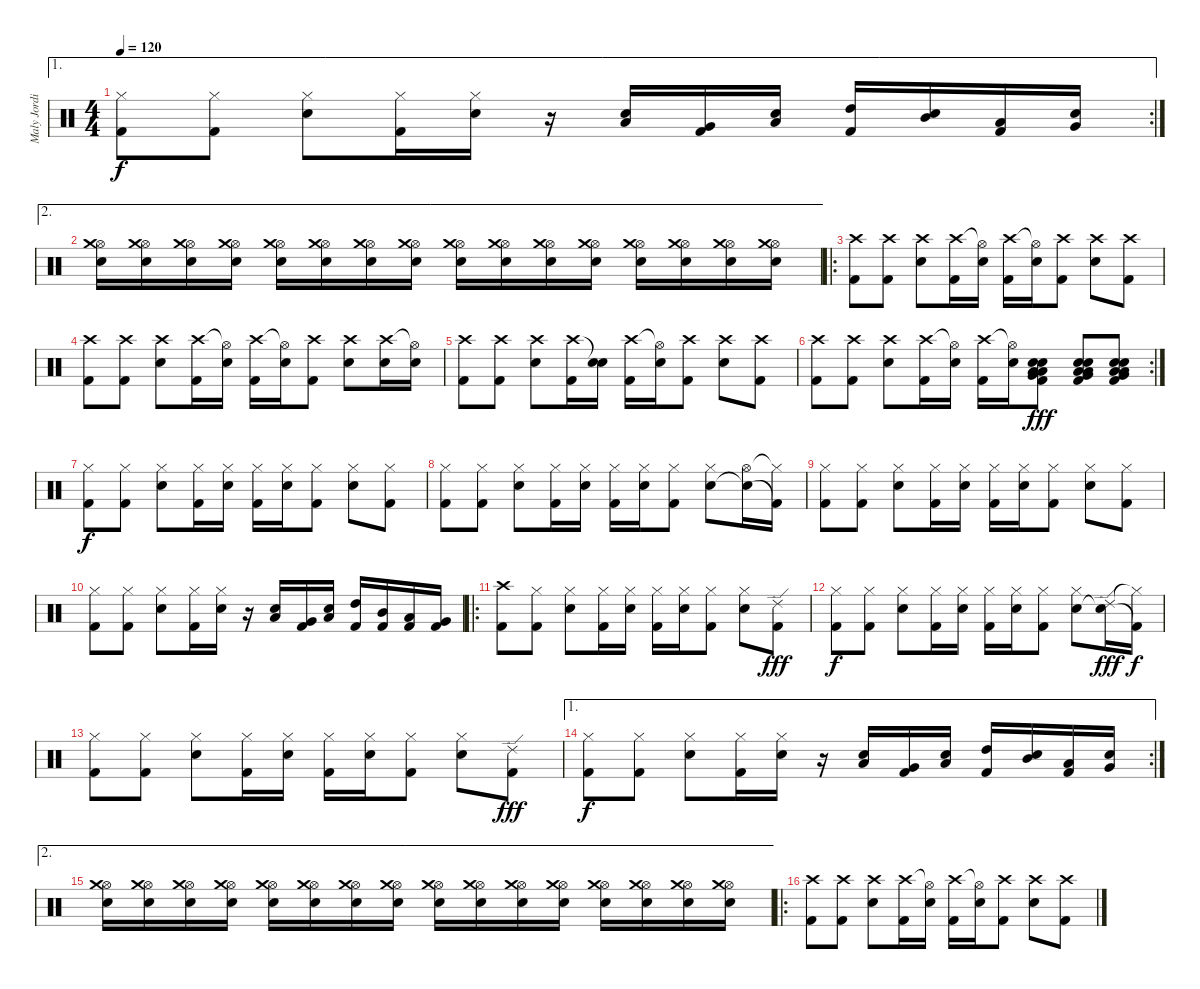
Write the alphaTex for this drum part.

\track ("Maly Jordison   - drums" "Maly Jordi") {instrument percussion}
\staff {score}
\articulation defaults
\ae 1
\rc 2
\ts (4 4)
\tempo 120
\clef neutral
\ks c
("Hi-Hat (closed)" "Kick (hit) 2").8{dy f} ("Hi-Hat (closed)" "Kick (hit) 2").8 ("Hi-Hat (closed)" "Electric Snare (hit)").8 ("Hi-Hat (closed)" "Kick (hit) 2").16 ("Hi-Hat (closed)" "Electric Snare (hit)").16 r.16 ("Low Floor Tom (hit)" "Electric Snare (hit)").16 ("Very Low Tom (hit)" "Kick (hit) 2").16 ("Low Tom (hit)" "Electric Snare (hit)").16 ("High Tom (hit)" "Kick (hit) 2").16 ("Mid Tom (hit)" "Electric Snare (hit)").16 ("Low Tom (hit)" "Kick (hit) 2").16 ("Very Low Tom (hit)" "Electric Snare (hit)").16 |
\ae 2
("Hi-Hat (open)" "Crash medium (hit)" "Electric Snare (hit)").16 ("Hi-Hat (open)" "Crash medium (hit)" "Electric Snare (hit)").16 ("Hi-Hat (open)" "Crash medium (hit)" "Electric Snare (hit)").16 ("Hi-Hat (open)" "Crash medium (hit)" "Electric Snare (hit)").16 ("Hi-Hat (open)" "Crash medium (hit)" "Electric Snare (hit)").16 ("Hi-Hat (open)" "Crash medium (hit)" "Electric Snare (hit)").16 ("Hi-Hat (open)" "Crash medium (hit)" "Electric Snare (hit)").16 ("Hi-Hat (open)" "Crash medium (hit)" "Electric Snare (hit)").16 ("Hi-Hat (open)" "Crash medium (hit)" "Electric Snare (hit)").16 ("Hi-Hat (open)" "Crash medium (hit)" "Electric Snare (hit)").16 ("Hi-Hat (open)" "Crash medium (hit)" "Electric Snare (hit)").16 ("Hi-Hat (open)" "Crash medium (hit)" "Electric Snare (hit)").16 ("Hi-Hat (open)" "Crash medium (hit)" "Electric Snare (hit)").16 ("Hi-Hat (open)" "Crash medium (hit)" "Electric Snare (hit)").16 ("Hi-Hat (open)" "Crash medium (hit)" "Electric Snare (hit)").16 ("Hi-Hat (open)" "Crash medium (hit)" "Electric Snare (hit)").16 |
\ro
("Crash high (hit)" "Kick (hit) 2").8 ("Crash high (hit)" "Kick (hit) 2").8 ("Crash high (hit)" "Electric Snare (hit)").8 ("Crash high (hit)" "Kick (hit) 2").16 ("Hi-Hat (open)"{t} "Electric Snare (hit)").16 ("Crash high (hit)" "Kick (hit) 2").16 ("Hi-Hat (open)"{t} "Electric Snare (hit)").16 ("Crash high (hit)" "Kick (hit) 2").8 ("Crash high (hit)" "Electric Snare (hit)").8 ("Crash high (hit)" "Kick (hit) 2").8 |
("Crash high (hit)" "Kick (hit) 2").8 ("Crash high (hit)" "Kick (hit) 2").8 ("Crash high (hit)" "Electric Snare (hit)").8 ("Crash high (hit)" "Kick (hit) 2").16 ("Hi-Hat (open)"{t} "Electric Snare (hit)").16 ("Crash high (hit)" "Kick (hit) 2").16 ("Hi-Hat (open)"{t} "Electric Snare (hit)").16 ("Crash high (hit)" "Kick (hit) 2").8 ("Crash high (hit)" "Electric Snare (hit)").8 ("Crash high (hit)" "Electric Snare (hit)").16 ("Hi-Hat (open)"{t} "Electric Snare (hit)").16 |
("Crash high (hit)" "Kick (hit) 2").8 ("Crash high (hit)" "Kick (hit) 2").8 ("Crash high (hit)" "Electric Snare (hit)").8 ("Crash high (hit)" "Kick (hit) 2").16 ("Snare (hit)"{t} "Electric Snare (hit)").16 ("Crash high (hit)" "Kick (hit) 2").16 ("Hi-Hat (open)"{t} "Electric Snare (hit)").16 ("Crash high (hit)" "Kick (hit) 2").8 ("Crash high (hit)" "Electric Snare (hit)").8 ("Crash high (hit)" "Kick (hit) 2").8 |
\rc 2
("Crash high (hit)" "Kick (hit) 2").8 ("Crash high (hit)" "Kick (hit) 2").8 ("Crash high (hit)" "Electric Snare (hit)").8 ("Crash high (hit)" "Kick (hit) 2").16 ("Hi-Hat (open)"{t} "Electric Snare (hit)").16 ("Crash high (hit)" "Kick (hit) 2").16 ("Hi-Hat (open)"{t} "Electric Snare (hit)").16 ("Kick (hit) 2" "Very Low Tom (hit)" "Low Floor Tom (hit)" "Low Floor Tom (hit)" "Electric Snare (hit)" "Electric Snare (hit)").8{dy fff} ("Kick (hit) 2" "Very Low Tom (hit)" "Low Floor Tom (hit)" "Low Floor Tom (hit)" "Electric Snare (hit)" "Electric Snare (hit)").8 ("Kick (hit) 2" "Very Low Tom (hit)" "Low Floor Tom (hit)" "Low Floor Tom (hit)" "Electric Snare (hit)" "Electric Snare (hit)").8 |
("Hi-Hat (closed)" "Kick (hit) 2").8{dy f} ("Hi-Hat (closed)" "Kick (hit) 2").8 ("Hi-Hat (closed)" "Electric Snare (hit)").8 ("Hi-Hat (closed)" "Kick (hit) 2").16 ("Hi-Hat (closed)" "Electric Snare (hit)").16 ("Hi-Hat (closed)" "Kick (hit) 2").16 ("Hi-Hat (closed)" "Electric Snare (hit)").16 ("Hi-Hat (closed)" "Kick (hit) 2").8 ("Hi-Hat (closed)" "Electric Snare (hit)").8 ("Hi-Hat (closed)" "Kick (hit) 2").8 |
("Hi-Hat (closed)" "Kick (hit) 2").8 ("Hi-Hat (closed)" "Kick (hit) 2").8 ("Hi-Hat (closed)" "Electric Snare (hit)").8 ("Hi-Hat (closed)" "Kick (hit) 2").16 ("Hi-Hat (closed)" "Electric Snare (hit)").16 ("Hi-Hat (closed)" "Kick (hit) 2").16 ("Hi-Hat (closed)" "Electric Snare (hit)").16 ("Hi-Hat (closed)" "Kick (hit) 2").8 ("Hi-Hat (closed)" "Electric Snare (hit)").8 ("Hi-Hat (open)" "Electric Snare (hit)"{t}).16 ("Hi-Hat (closed)"{t} "Kick (hit) 2"{t}).16 |
("Hi-Hat (closed)" "Kick (hit) 2").8 ("Hi-Hat (closed)" "Kick (hit) 2").8 ("Hi-Hat (closed)" "Electric Snare (hit)").8 ("Hi-Hat (closed)" "Kick (hit) 2").16 ("Hi-Hat (closed)" "Electric Snare (hit)").16 ("Hi-Hat (closed)" "Kick (hit) 2").16 ("Hi-Hat (closed)" "Electric Snare (hit)").16 ("Hi-Hat (closed)" "Kick (hit) 2").8 ("Hi-Hat (closed)" "Electric Snare (hit)").8 ("Hi-Hat (closed)" "Kick (hit) 2").8 |
("Hi-Hat (closed)" "Kick (hit) 2").8 ("Hi-Hat (closed)" "Kick (hit) 2").8 ("Hi-Hat (closed)" "Electric Snare (hit)").8 ("Hi-Hat (closed)" "Kick (hit) 2").16 ("Hi-Hat (closed)" "Electric Snare (hit)").16 r.16 ("Low Floor Tom (hit)" "Electric Snare (hit)").16 ("Very Low Tom (hit)" "Kick (hit) 2").16 ("Low Tom (hit)" "Electric Snare (hit)").16 ("High Tom (hit)" "Kick (hit) 2").16 ("Mid Tom (hit)" "Kick (hit) 2").16 ("Low Tom (hit)" "Kick (hit) 2").16 ("Very Low Tom (hit)" "Kick (hit) 2").16 |
\ro
("Crash high (hit)" "Kick (hit) 2").8 ("Hi-Hat (closed)" "Kick (hit) 2").8 ("Hi-Hat (closed)" "Electric Snare (hit)").8 ("Hi-Hat (closed)" "Kick (hit) 2").16 ("Hi-Hat (closed)" "Electric Snare (hit)").16 ("Hi-Hat (closed)" "Kick (hit) 2").16 ("Hi-Hat (closed)" "Electric Snare (hit)").16 ("Hi-Hat (closed)" "Kick (hit) 2").8 ("Hi-Hat (closed)" "Electric Snare (hit)").8 ("Ride (edge) 2" "Kick (hit) 2").8{dy fff} |
("Hi-Hat (closed)" "Kick (hit) 2").8{dy f} ("Hi-Hat (closed)" "Kick (hit) 2").8 ("Hi-Hat (closed)" "Electric Snare (hit)").8 ("Hi-Hat (closed)" "Kick (hit) 2").16 ("Hi-Hat (closed)" "Electric Snare (hit)").16 ("Hi-Hat (closed)" "Kick (hit) 2").16 ("Hi-Hat (closed)" "Electric Snare (hit)").16 ("Hi-Hat (closed)" "Kick (hit) 2").8 ("Hi-Hat (closed)" "Electric Snare (hit)").8 ("Ride (edge) 2" "Electric Snare (hit)"{t}).16{dy fff} ("Hi-Hat (closed)"{t} "Kick (hit) 2"{t}).16{dy f} |
("Hi-Hat (closed)" "Kick (hit) 2").8 ("Hi-Hat (closed)" "Kick (hit) 2").8 ("Hi-Hat (closed)" "Electric Snare (hit)").8 ("Hi-Hat (closed)" "Kick (hit) 2").16 ("Hi-Hat (closed)" "Electric Snare (hit)").16 ("Hi-Hat (closed)" "Kick (hit) 2").16 ("Hi-Hat (closed)" "Electric Snare (hit)").16 ("Hi-Hat (closed)" "Kick (hit) 2").8 ("Hi-Hat (closed)" "Electric Snare (hit)").8 ("Ride (edge) 2" "Kick (hit) 2").8{dy fff} |
\ae 1
\rc 2
("Hi-Hat (closed)" "Kick (hit) 2").8{dy f} ("Hi-Hat (closed)" "Kick (hit) 2").8 ("Hi-Hat (closed)" "Electric Snare (hit)").8 ("Hi-Hat (closed)" "Kick (hit) 2").16 ("Hi-Hat (closed)" "Electric Snare (hit)").16 r.16 ("Low Floor Tom (hit)" "Electric Snare (hit)").16 ("Very Low Tom (hit)" "Kick (hit) 2").16 ("Low Tom (hit)" "Electric Snare (hit)").16 ("High Tom (hit)" "Kick (hit) 2").16 ("Mid Tom (hit)" "Electric Snare (hit)").16 ("Low Tom (hit)" "Kick (hit) 2").16 ("Very Low Tom (hit)" "Electric Snare (hit)").16 |
\ae 2
("Hi-Hat (open)" "Crash medium (hit)" "Electric Snare (hit)").16 ("Hi-Hat (open)" "Crash medium (hit)" "Electric Snare (hit)").16 ("Hi-Hat (open)" "Crash medium (hit)" "Electric Snare (hit)").16 ("Hi-Hat (open)" "Crash medium (hit)" "Electric Snare (hit)").16 ("Hi-Hat (open)" "Crash medium (hit)" "Electric Snare (hit)").16 ("Hi-Hat (open)" "Crash medium (hit)" "Electric Snare (hit)").16 ("Hi-Hat (open)" "Crash medium (hit)" "Electric Snare (hit)").16 ("Hi-Hat (open)" "Crash medium (hit)" "Electric Snare (hit)").16 ("Hi-Hat (open)" "Crash medium (hit)" "Electric Snare (hit)").16 ("Hi-Hat (open)" "Crash medium (hit)" "Electric Snare (hit)").16 ("Hi-Hat (open)" "Crash medium (hit)" "Electric Snare (hit)").16 ("Hi-Hat (open)" "Crash medium (hit)" "Electric Snare (hit)").16 ("Hi-Hat (open)" "Crash medium (hit)" "Electric Snare (hit)").16 ("Hi-Hat (open)" "Crash medium (hit)" "Electric Snare (hit)").16 ("Hi-Hat (open)" "Crash medium (hit)" "Electric Snare (hit)").16 ("Hi-Hat (open)" "Crash medium (hit)" "Electric Snare (hit)").16 |
\ro
("Crash high (hit)" "Kick (hit) 2").8 ("Crash high (hit)" "Kick (hit) 2").8 ("Crash high (hit)" "Electric Snare (hit)").8 ("Crash high (hit)" "Kick (hit) 2").16 ("Hi-Hat (open)"{t} "Electric Snare (hit)").16 ("Crash high (hit)" "Kick (hit) 2").16 ("Hi-Hat (open)"{t} "Electric Snare (hit)").16 ("Crash high (hit)" "Kick (hit) 2").8 ("Crash high (hit)" "Electric Snare (hit)").8 ("Crash high (hit)" "Kick (hit) 2").8
